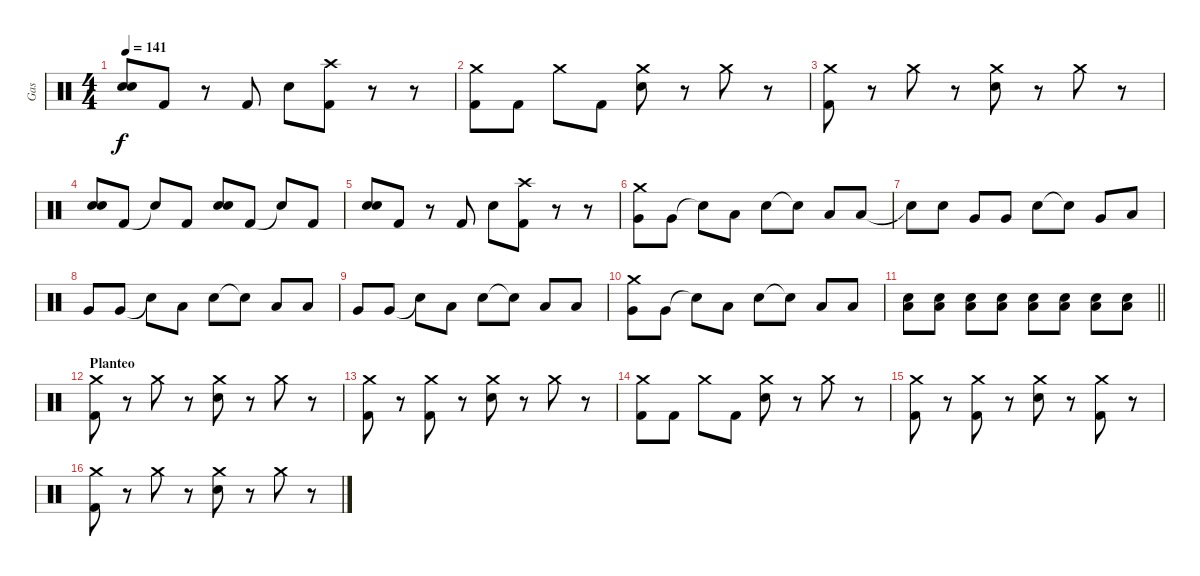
\track ("Gas" "Gas") {instrument percussion}
\staff {score}
\articulation defaults
\ts (4 4)
\tempo 141
\clef neutral
\ks c
("Electric Snare (hit)" "Electric Snare (hit)").8{bd 240 dy f} "Kick (hit) 2".8 r.8 "Kick (hit) 2".8 "Electric Snare (hit)".8 ("Crash high (hit)" "Kick (hit) 2").8 r.8 r.8 |
("Crash medium (hit)" "Kick (hit) 2").8 "Kick (hit) 2".8 "Crash medium (hit)".8 "Kick (hit) 2".8 ("Crash medium (hit)" "Electric Snare (hit)").8 r.8 "Crash medium (hit)".8 r.8 |
("Crash medium (hit)" "Kick (hit) 2").8 r.8 "Crash medium (hit)".8 r.8 ("Crash medium (hit)" "Electric Snare (hit)").8 r.8 "Crash medium (hit)".8 r.8 |
("Electric Snare (hit)" "Electric Snare (hit)").8{bd 240} "Kick (hit) 2".8 "Snare (hit)"{t}.8 "Kick (hit) 2".8 ("Electric Snare (hit)" "Electric Snare (hit)").8{bd 240} "Kick (hit) 2".8 "Snare (hit)"{t}.8 "Kick (hit) 2".8 |
("Electric Snare (hit)" "Electric Snare (hit)").8{bd 240} "Kick (hit) 2".8 r.8 "Kick (hit) 2".8 "Electric Snare (hit)".8 ("Crash high (hit)" "Kick (hit) 2").8 r.8 r.8 |
("Crash medium (hit)" "Very Low Tom (hit)").8 "Very Low Tom (hit)".8 "Snare (hit)"{t}.8 "Low Tom (hit)".8 "Electric Snare (hit)".8 "Snare (hit)"{t}.8 "Low Tom (hit)".8 "Low Tom (hit)".8 |
"Snare (hit)"{t}.8 "Electric Snare (hit)".8 "Very Low Tom (hit)".8 "Very Low Tom (hit)".8 "Electric Snare (hit)".8 "Snare (hit)"{t}.8 "Very Low Tom (hit)".8 "Low Tom (hit)".8 |
"Very Low Tom (hit)".8 "Very Low Tom (hit)".8 "Snare (hit)"{t}.8 "Low Tom (hit)".8 "Electric Snare (hit)".8 "Snare (hit)"{t}.8 "Low Tom (hit)".8 "Low Tom (hit)".8 |
"Very Low Tom (hit)".8 "Very Low Tom (hit)".8 "Snare (hit)"{t}.8 "Low Tom (hit)".8 "Electric Snare (hit)".8 "Snare (hit)"{t}.8 "Low Tom (hit)".8 "Low Tom (hit)".8 |
("Crash medium (hit)" "Very Low Tom (hit)").8 "Very Low Tom (hit)".8 "Snare (hit)"{t}.8 "Low Tom (hit)".8 "Electric Snare (hit)".8 "Snare (hit)"{t}.8 "Low Tom (hit)".8 "Low Tom (hit)".8 |
\barLineRight lightlight
("Electric Snare (hit)" "Low Tom (hit)").8 ("Electric Snare (hit)" "Low Tom (hit)").8 ("Electric Snare (hit)" "Low Tom (hit)").8 ("Electric Snare (hit)" "Low Tom (hit)").8 ("Electric Snare (hit)" "Low Tom (hit)").8 ("Electric Snare (hit)" "Low Tom (hit)").8 ("Electric Snare (hit)" "Low Tom (hit)").8 ("Electric Snare (hit)" "Low Tom (hit)").8 |
\section ("" "Planteo")
("Crash medium (hit)" "Kick (hit) 2").8 r.8 "Crash medium (hit)".8 r.8 ("Crash medium (hit)" "Electric Snare (hit)").8 r.8 "Crash medium (hit)".8 r.8 |
("Crash medium (hit)" "Kick (hit) 2").8 r.8 ("Crash medium (hit)" "Kick (hit) 2").8 r.8 ("Crash medium (hit)" "Electric Snare (hit)").8 r.8 "Crash medium (hit)".8 r.8 |
("Crash medium (hit)" "Kick (hit) 2").8 "Kick (hit) 2".8 "Crash medium (hit)".8 "Kick (hit) 2".8 ("Crash medium (hit)" "Electric Snare (hit)").8 r.8 "Crash medium (hit)".8 r.8 |
("Crash medium (hit)" "Kick (hit) 2").8 r.8 ("Crash medium (hit)" "Kick (hit) 2").8 r.8 ("Crash medium (hit)" "Electric Snare (hit)").8 r.8 ("Crash medium (hit)" "Kick (hit) 2").8 r.8 |
("Crash medium (hit)" "Kick (hit) 2").8 r.8 "Crash medium (hit)".8 r.8 ("Crash medium (hit)" "Electric Snare (hit)").8 r.8 "Crash medium (hit)".8 r.8
